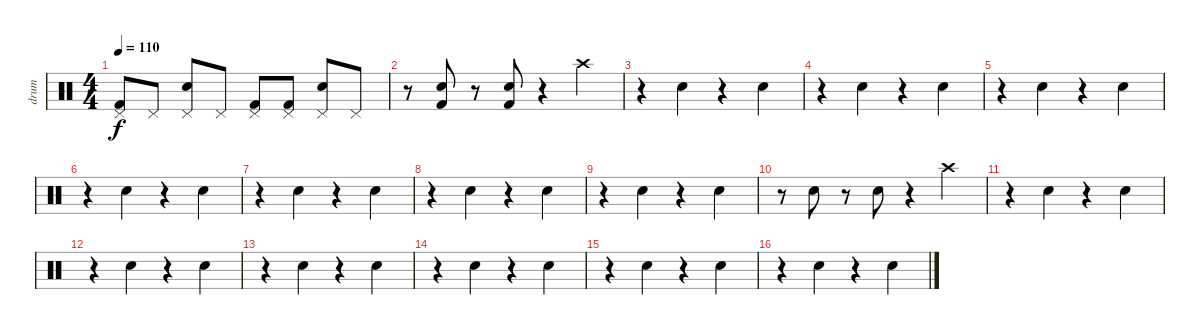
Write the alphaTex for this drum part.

\track ("drum" "drum") {instrument percussion}
\staff {score}
\articulation defaults
\ts (4 4)
\tempo 110
\clef neutral
\ks c
("Pedal Hi-Hat (hit)" "Kick (hit) 2").8{dy f} "Pedal Hi-Hat (hit)".8 ("Pedal Hi-Hat (hit)" "Electric Snare (hit)").8 "Pedal Hi-Hat (hit)".8 ("Pedal Hi-Hat (hit)" "Kick (hit) 2").8 ("Pedal Hi-Hat (hit)" "Kick (hit) 2").8 ("Pedal Hi-Hat (hit)" "Electric Snare (hit)").8 "Pedal Hi-Hat (hit)".8 |
r.8 ("Kick (hit) 2" "Electric Snare (hit)").8 r.8 ("Kick (hit) 2" "Electric Snare (hit)").8 r.4 "Crash high (hit)".4 |
r.4 "Snare (hit)".4 r.4 "Snare (hit)".4 |
r.4 "Snare (hit)".4 r.4 "Snare (hit)".4 |
r.4 "Snare (hit)".4 r.4 "Snare (hit)".4 |
r.4 "Snare (hit)".4 r.4 "Snare (hit)".4 |
r.4 "Snare (hit)".4 r.4 "Snare (hit)".4 |
r.4 "Snare (hit)".4 r.4 "Snare (hit)".4 |
r.4 "Snare (hit)".4 r.4 "Snare (hit)".4 |
r.8 "Snare (hit)".8 r.8 "Snare (hit)".8 r.4 "Crash high (hit)".4 |
r.4 "Snare (hit)".4 r.4 "Snare (hit)".4 |
r.4 "Snare (hit)".4 r.4 "Snare (hit)".4 |
r.4 "Snare (hit)".4 r.4 "Snare (hit)".4 |
r.4 "Snare (hit)".4 r.4 "Snare (hit)".4 |
r.4 "Snare (hit)".4 r.4 "Snare (hit)".4 |
r.4 "Snare (hit)".4 r.4 "Snare (hit)".4
